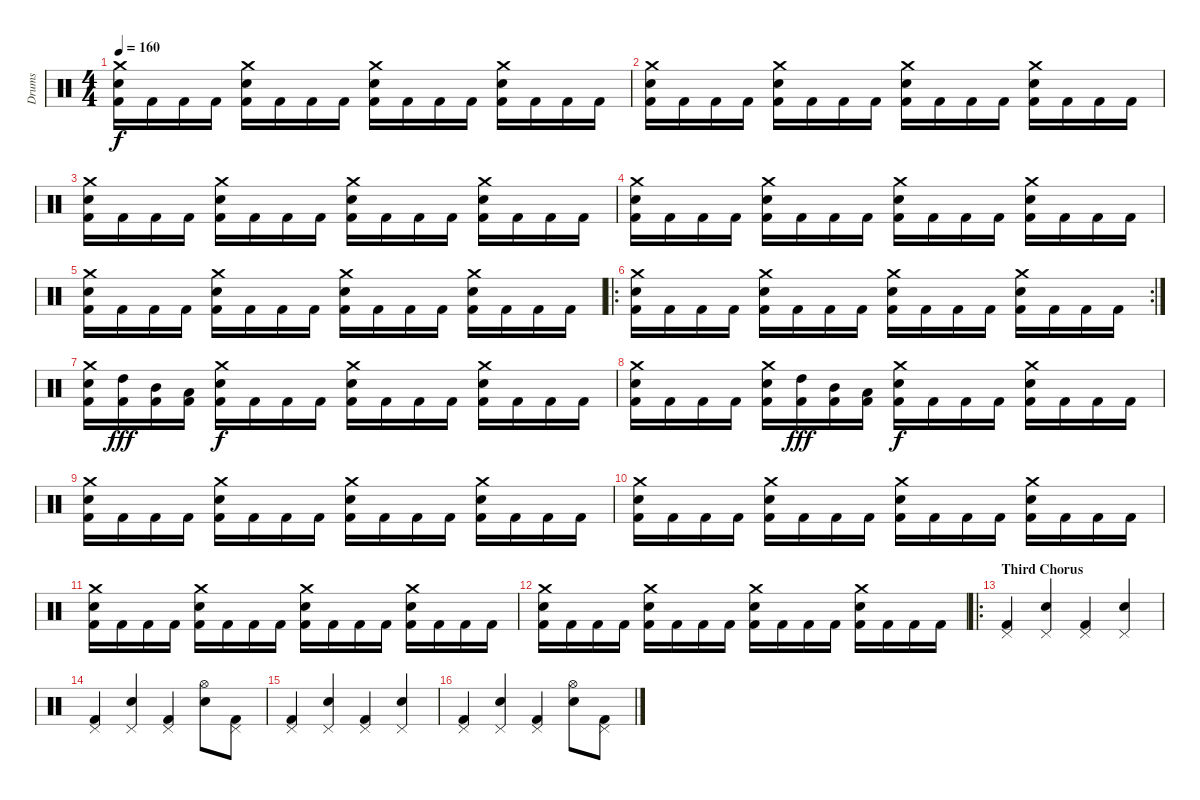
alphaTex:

\track ("Drums" "Drums") {instrument percussion}
\staff {score}
\articulation defaults
\ts (4 4)
\tempo 160
\clef neutral
\ks c
("Crash medium (hit)" "Electric Snare (hit)" "Kick (hit) 2").16{dy f} "Kick (hit) 2".16 "Kick (hit) 2".16 "Kick (hit) 2".16 ("Crash medium (hit)" "Electric Snare (hit)" "Kick (hit) 2").16 "Kick (hit) 2".16 "Kick (hit) 2".16 "Kick (hit) 2".16 ("Crash medium (hit)" "Electric Snare (hit)" "Kick (hit) 2").16 "Kick (hit) 2".16 "Kick (hit) 2".16 "Kick (hit) 2".16 ("Crash medium (hit)" "Electric Snare (hit)" "Kick (hit) 2").16 "Kick (hit) 2".16 "Kick (hit) 2".16 "Kick (hit) 2".16 |
("Crash medium (hit)" "Electric Snare (hit)" "Kick (hit) 2").16 "Kick (hit) 2".16 "Kick (hit) 2".16 "Kick (hit) 2".16 ("Crash medium (hit)" "Electric Snare (hit)" "Kick (hit) 2").16 "Kick (hit) 2".16 "Kick (hit) 2".16 "Kick (hit) 2".16 ("Crash medium (hit)" "Electric Snare (hit)" "Kick (hit) 2").16 "Kick (hit) 2".16 "Kick (hit) 2".16 "Kick (hit) 2".16 ("Crash medium (hit)" "Electric Snare (hit)" "Kick (hit) 2").16 "Kick (hit) 2".16 "Kick (hit) 2".16 "Kick (hit) 2".16 |
("Crash medium (hit)" "Electric Snare (hit)" "Kick (hit) 2").16 "Kick (hit) 2".16 "Kick (hit) 2".16 "Kick (hit) 2".16 ("Crash medium (hit)" "Electric Snare (hit)" "Kick (hit) 2").16 "Kick (hit) 2".16 "Kick (hit) 2".16 "Kick (hit) 2".16 ("Crash medium (hit)" "Electric Snare (hit)" "Kick (hit) 2").16 "Kick (hit) 2".16 "Kick (hit) 2".16 "Kick (hit) 2".16 ("Crash medium (hit)" "Electric Snare (hit)" "Kick (hit) 2").16 "Kick (hit) 2".16 "Kick (hit) 2".16 "Kick (hit) 2".16 |
("Crash medium (hit)" "Electric Snare (hit)" "Kick (hit) 2").16 "Kick (hit) 2".16 "Kick (hit) 2".16 "Kick (hit) 2".16 ("Crash medium (hit)" "Electric Snare (hit)" "Kick (hit) 2").16 "Kick (hit) 2".16 "Kick (hit) 2".16 "Kick (hit) 2".16 ("Crash medium (hit)" "Electric Snare (hit)" "Kick (hit) 2").16 "Kick (hit) 2".16 "Kick (hit) 2".16 "Kick (hit) 2".16 ("Crash medium (hit)" "Electric Snare (hit)" "Kick (hit) 2").16 "Kick (hit) 2".16 "Kick (hit) 2".16 "Kick (hit) 2".16 |
("Crash medium (hit)" "Electric Snare (hit)" "Kick (hit) 2").16 "Kick (hit) 2".16 "Kick (hit) 2".16 "Kick (hit) 2".16 ("Crash medium (hit)" "Electric Snare (hit)" "Kick (hit) 2").16 "Kick (hit) 2".16 "Kick (hit) 2".16 "Kick (hit) 2".16 ("Crash medium (hit)" "Electric Snare (hit)" "Kick (hit) 2").16 "Kick (hit) 2".16 "Kick (hit) 2".16 "Kick (hit) 2".16 ("Crash medium (hit)" "Electric Snare (hit)" "Kick (hit) 2").16 "Kick (hit) 2".16 "Kick (hit) 2".16 "Kick (hit) 2".16 |
\ro
\rc 2
("Crash medium (hit)" "Electric Snare (hit)" "Kick (hit) 2").16 "Kick (hit) 2".16 "Kick (hit) 2".16 "Kick (hit) 2".16 ("Crash medium (hit)" "Electric Snare (hit)" "Kick (hit) 2").16 "Kick (hit) 2".16 "Kick (hit) 2".16 "Kick (hit) 2".16 ("Crash medium (hit)" "Electric Snare (hit)" "Kick (hit) 2").16 "Kick (hit) 2".16 "Kick (hit) 2".16 "Kick (hit) 2".16 ("Crash medium (hit)" "Electric Snare (hit)" "Kick (hit) 2").16 "Kick (hit) 2".16 "Kick (hit) 2".16 "Kick (hit) 2".16 |
("Crash medium (hit)" "Electric Snare (hit)" "Kick (hit) 2").16 ("High Tom (hit)" "Kick (hit) 2").16{dy fff} ("Mid Tom (hit)" "Kick (hit) 2").16 ("Low Tom (hit)" "Kick (hit) 2").16 ("Crash medium (hit)" "Electric Snare (hit)" "Kick (hit) 2").16{dy f} "Kick (hit) 2".16 "Kick (hit) 2".16 "Kick (hit) 2".16 ("Crash medium (hit)" "Electric Snare (hit)" "Kick (hit) 2").16 "Kick (hit) 2".16 "Kick (hit) 2".16 "Kick (hit) 2".16 ("Crash medium (hit)" "Electric Snare (hit)" "Kick (hit) 2").16 "Kick (hit) 2".16 "Kick (hit) 2".16 "Kick (hit) 2".16 |
("Crash medium (hit)" "Electric Snare (hit)" "Kick (hit) 2").16 "Kick (hit) 2".16 "Kick (hit) 2".16 "Kick (hit) 2".16 ("Crash medium (hit)" "Electric Snare (hit)" "Kick (hit) 2").16 ("High Tom (hit)" "Kick (hit) 2").16{dy fff} ("Mid Tom (hit)" "Kick (hit) 2").16 ("Low Tom (hit)" "Kick (hit) 2").16 ("Crash medium (hit)" "Electric Snare (hit)" "Kick (hit) 2").16{dy f} "Kick (hit) 2".16 "Kick (hit) 2".16 "Kick (hit) 2".16 ("Crash medium (hit)" "Electric Snare (hit)" "Kick (hit) 2").16 "Kick (hit) 2".16 "Kick (hit) 2".16 "Kick (hit) 2".16 |
("Crash medium (hit)" "Electric Snare (hit)" "Kick (hit) 2").16 "Kick (hit) 2".16 "Kick (hit) 2".16 "Kick (hit) 2".16 ("Crash medium (hit)" "Electric Snare (hit)" "Kick (hit) 2").16 "Kick (hit) 2".16 "Kick (hit) 2".16 "Kick (hit) 2".16 ("Crash medium (hit)" "Electric Snare (hit)" "Kick (hit) 2").16 "Kick (hit) 2".16 "Kick (hit) 2".16 "Kick (hit) 2".16 ("Crash medium (hit)" "Electric Snare (hit)" "Kick (hit) 2").16 "Kick (hit) 2".16 "Kick (hit) 2".16 "Kick (hit) 2".16 |
("Crash medium (hit)" "Electric Snare (hit)" "Kick (hit) 2").16 "Kick (hit) 2".16 "Kick (hit) 2".16 "Kick (hit) 2".16 ("Crash medium (hit)" "Electric Snare (hit)" "Kick (hit) 2").16 "Kick (hit) 2".16 "Kick (hit) 2".16 "Kick (hit) 2".16 ("Crash medium (hit)" "Electric Snare (hit)" "Kick (hit) 2").16 "Kick (hit) 2".16 "Kick (hit) 2".16 "Kick (hit) 2".16 ("Crash medium (hit)" "Electric Snare (hit)" "Kick (hit) 2").16 "Kick (hit) 2".16 "Kick (hit) 2".16 "Kick (hit) 2".16 |
("Crash medium (hit)" "Electric Snare (hit)" "Kick (hit) 2").16 "Kick (hit) 2".16 "Kick (hit) 2".16 "Kick (hit) 2".16 ("Crash medium (hit)" "Electric Snare (hit)" "Kick (hit) 2").16 "Kick (hit) 2".16 "Kick (hit) 2".16 "Kick (hit) 2".16 ("Crash medium (hit)" "Electric Snare (hit)" "Kick (hit) 2").16 "Kick (hit) 2".16 "Kick (hit) 2".16 "Kick (hit) 2".16 ("Crash medium (hit)" "Electric Snare (hit)" "Kick (hit) 2").16 "Kick (hit) 2".16 "Kick (hit) 2".16 "Kick (hit) 2".16 |
("Crash medium (hit)" "Electric Snare (hit)" "Kick (hit) 2").16 "Kick (hit) 2".16 "Kick (hit) 2".16 "Kick (hit) 2".16 ("Crash medium (hit)" "Electric Snare (hit)" "Kick (hit) 2").16 "Kick (hit) 2".16 "Kick (hit) 2".16 "Kick (hit) 2".16 ("Crash medium (hit)" "Electric Snare (hit)" "Kick (hit) 2").16 "Kick (hit) 2".16 "Kick (hit) 2".16 "Kick (hit) 2".16 ("Crash medium (hit)" "Electric Snare (hit)" "Kick (hit) 2").16 "Kick (hit) 2".16 "Kick (hit) 2".16 "Kick (hit) 2".16 |
\ro
\section ("" "Third Chorus")
("Pedal Hi-Hat (hit)" "Kick (hit) 2").4 ("Pedal Hi-Hat (hit)" "Electric Snare (hit)").4 ("Pedal Hi-Hat (hit)" "Kick (hit) 2").4 ("Pedal Hi-Hat (hit)" "Electric Snare (hit)").4 |
("Pedal Hi-Hat (hit)" "Kick (hit) 2").4 ("Pedal Hi-Hat (hit)" "Electric Snare (hit)").4 ("Pedal Hi-Hat (hit)" "Kick (hit) 2").4 ("Hi-Hat (open)" "Electric Snare (hit)").8 ("Pedal Hi-Hat (hit)" "Kick (hit) 2").8 |
("Pedal Hi-Hat (hit)" "Kick (hit) 2").4 ("Pedal Hi-Hat (hit)" "Electric Snare (hit)").4 ("Pedal Hi-Hat (hit)" "Kick (hit) 2").4 ("Pedal Hi-Hat (hit)" "Electric Snare (hit)").4 |
("Pedal Hi-Hat (hit)" "Kick (hit) 2").4 ("Pedal Hi-Hat (hit)" "Electric Snare (hit)").4 ("Pedal Hi-Hat (hit)" "Kick (hit) 2").4 ("Hi-Hat (open)" "Electric Snare (hit)").8 ("Pedal Hi-Hat (hit)" "Kick (hit) 2").8
